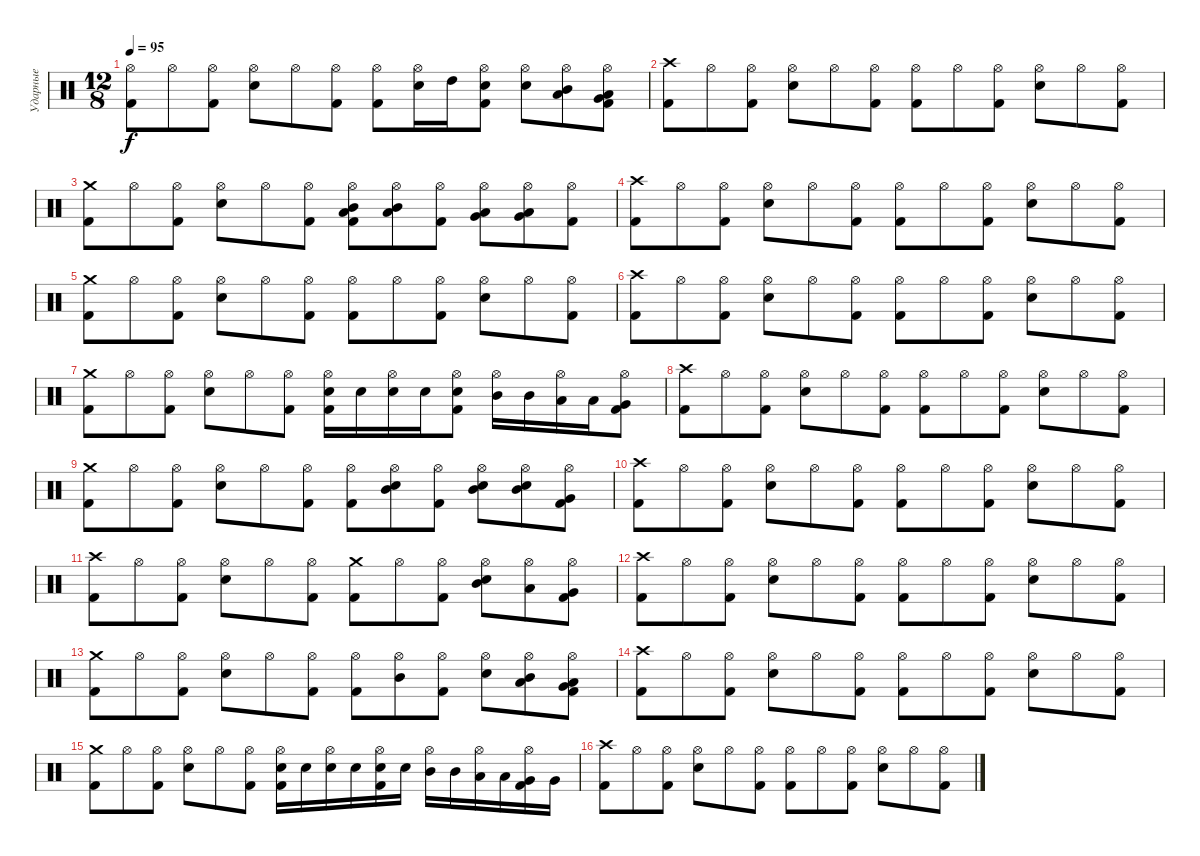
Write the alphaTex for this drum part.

\track ("Ударные" "Ударные") {instrument percussion}
\staff {score}
\articulation defaults
\ts (12 8)
\tempo 95
\clef neutral
\ks c
("Hi-Hat (open)" "Kick (hit) 2").8{dy f} "Hi-Hat (open)".8 ("Hi-Hat (open)" "Kick (hit) 2").8 ("Hi-Hat (open)" "Electric Snare (hit)").8 "Hi-Hat (open)".8 ("Hi-Hat (open)" "Kick (hit) 2").8 ("Hi-Hat (open)" "Kick (hit) 2").8 ("Hi-Hat (open)" "Electric Snare (hit)").16 "High Tom (hit)".16 ("Hi-Hat (open)" "Electric Snare (hit)" "Kick (hit) 2").8 ("Hi-Hat (open)" "Electric Snare (hit)").8 ("Hi-Hat (open)" "Mid Tom (hit)" "Low Tom (hit)").8 ("Hi-Hat (open)" "Low Tom (hit)" "Very Low Tom (hit)" "Kick (hit) 2").8 |
("Crash high (hit)" "Kick (hit) 2").8 "Hi-Hat (open)".8 ("Hi-Hat (open)" "Kick (hit) 2").8 ("Hi-Hat (open)" "Electric Snare (hit)").8 "Hi-Hat (open)".8 ("Hi-Hat (open)" "Kick (hit) 2").8 ("Hi-Hat (open)" "Kick (hit) 2").8 "Hi-Hat (open)".8 ("Hi-Hat (open)" "Kick (hit) 2").8 ("Hi-Hat (open)" "Electric Snare (hit)").8 "Hi-Hat (open)".8 ("Hi-Hat (open)" "Kick (hit) 2").8 |
("Crash medium (hit)" "Kick (hit) 2").8 "Hi-Hat (open)".8 ("Hi-Hat (open)" "Kick (hit) 2").8 ("Hi-Hat (open)" "Electric Snare (hit)").8 "Hi-Hat (open)".8 ("Hi-Hat (open)" "Kick (hit) 2").8 ("Hi-Hat (open)" "Mid Tom (hit)" "Low Tom (hit)" "Kick (hit) 2").8 ("Hi-Hat (open)" "Mid Tom (hit)" "Low Tom (hit)").8 ("Hi-Hat (open)" "Kick (hit) 2").8 ("Hi-Hat (open)" "Low Tom (hit)" "Very Low Tom (hit)").8 ("Hi-Hat (open)" "Low Tom (hit)" "Very Low Tom (hit)").8 ("Hi-Hat (open)" "Kick (hit) 2").8 |
("Crash high (hit)" "Kick (hit) 2").8 "Hi-Hat (open)".8 ("Hi-Hat (open)" "Kick (hit) 2").8 ("Hi-Hat (open)" "Electric Snare (hit)").8 "Hi-Hat (open)".8 ("Hi-Hat (open)" "Kick (hit) 2").8 ("Hi-Hat (open)" "Kick (hit) 2").8 "Hi-Hat (open)".8 ("Hi-Hat (open)" "Kick (hit) 2").8 ("Hi-Hat (open)" "Electric Snare (hit)").8 "Hi-Hat (open)".8 ("Hi-Hat (open)" "Kick (hit) 2").8 |
("Crash medium (hit)" "Kick (hit) 2").8 "Hi-Hat (open)".8 ("Hi-Hat (open)" "Kick (hit) 2").8 ("Hi-Hat (open)" "Electric Snare (hit)").8 "Hi-Hat (open)".8 ("Hi-Hat (open)" "Kick (hit) 2").8 ("Hi-Hat (open)" "Kick (hit) 2").8 "Hi-Hat (open)".8 ("Hi-Hat (open)" "Kick (hit) 2").8 ("Hi-Hat (open)" "Electric Snare (hit)").8 "Hi-Hat (open)".8 ("Hi-Hat (open)" "Kick (hit) 2").8 |
("Crash high (hit)" "Kick (hit) 2").8 "Hi-Hat (open)".8 ("Hi-Hat (open)" "Kick (hit) 2").8 ("Hi-Hat (open)" "Electric Snare (hit)").8 "Hi-Hat (open)".8 ("Hi-Hat (open)" "Kick (hit) 2").8 ("Hi-Hat (open)" "Kick (hit) 2").8 "Hi-Hat (open)".8 ("Hi-Hat (open)" "Kick (hit) 2").8 ("Hi-Hat (open)" "Electric Snare (hit)").8 "Hi-Hat (open)".8 ("Hi-Hat (open)" "Kick (hit) 2").8 |
("Crash medium (hit)" "Kick (hit) 2").8 "Hi-Hat (open)".8 ("Hi-Hat (open)" "Kick (hit) 2").8 ("Hi-Hat (open)" "Electric Snare (hit)").8 "Hi-Hat (open)".8 ("Hi-Hat (open)" "Kick (hit) 2").8 ("Hi-Hat (open)" "Electric Snare (hit)" "Kick (hit) 2").16 "Electric Snare (hit)".16 ("Hi-Hat (open)" "Electric Snare (hit)").16 "Electric Snare (hit)".16 ("Hi-Hat (open)" "Electric Snare (hit)" "Kick (hit) 2").8 ("Hi-Hat (open)" "Mid Tom (hit)").16 "Mid Tom (hit)".16 ("Hi-Hat (open)" "Low Tom (hit)").16 "Low Tom (hit)".16 ("Hi-Hat (open)" "Very Low Tom (hit)" "Kick (hit) 2").8 |
("Crash high (hit)" "Kick (hit) 2").8 "Hi-Hat (open)".8 ("Hi-Hat (open)" "Kick (hit) 2").8 ("Hi-Hat (open)" "Electric Snare (hit)").8 "Hi-Hat (open)".8 ("Hi-Hat (open)" "Kick (hit) 2").8 ("Hi-Hat (open)" "Kick (hit) 2").8 "Hi-Hat (open)".8 ("Hi-Hat (open)" "Kick (hit) 2").8 ("Hi-Hat (open)" "Electric Snare (hit)").8 "Hi-Hat (open)".8 ("Hi-Hat (open)" "Kick (hit) 2").8 |
("Crash medium (hit)" "Kick (hit) 2").8 "Hi-Hat (open)".8 ("Hi-Hat (open)" "Kick (hit) 2").8 ("Hi-Hat (open)" "Electric Snare (hit)").8 "Hi-Hat (open)".8 ("Hi-Hat (open)" "Kick (hit) 2").8 ("Hi-Hat (open)" "Kick (hit) 2").8 ("Hi-Hat (open)" "Mid Tom (hit)" "Electric Snare (hit)").8 ("Hi-Hat (open)" "Kick (hit) 2").8 ("Hi-Hat (open)" "Mid Tom (hit)" "Electric Snare (hit)").8 ("Hi-Hat (open)" "Mid Tom (hit)" "Electric Snare (hit)").8 ("Hi-Hat (open)" "Very Low Tom (hit)" "Kick (hit) 2").8 |
("Crash high (hit)" "Kick (hit) 2").8 "Hi-Hat (open)".8 ("Hi-Hat (open)" "Kick (hit) 2").8 ("Hi-Hat (open)" "Electric Snare (hit)").8 "Hi-Hat (open)".8 ("Hi-Hat (open)" "Kick (hit) 2").8 ("Hi-Hat (open)" "Kick (hit) 2").8 "Hi-Hat (open)".8 ("Hi-Hat (open)" "Kick (hit) 2").8 ("Hi-Hat (open)" "Electric Snare (hit)").8 "Hi-Hat (open)".8 ("Hi-Hat (open)" "Kick (hit) 2").8 |
("Crash high (hit)" "Kick (hit) 2").8 "Hi-Hat (open)".8 ("Hi-Hat (open)" "Kick (hit) 2").8 ("Hi-Hat (open)" "Electric Snare (hit)").8 "Hi-Hat (open)".8 ("Hi-Hat (open)" "Kick (hit) 2").8 ("Crash medium (hit)" "Kick (hit) 2").8 "Hi-Hat (open)".8 ("Hi-Hat (open)" "Kick (hit) 2").8 ("Hi-Hat (open)" "Mid Tom (hit)" "Electric Snare (hit)").8 ("Hi-Hat (open)" "Low Tom (hit)").8 ("Hi-Hat (open)" "Very Low Tom (hit)" "Kick (hit) 2").8 |
("Crash high (hit)" "Kick (hit) 2").8 "Hi-Hat (open)".8 ("Hi-Hat (open)" "Kick (hit) 2").8 ("Hi-Hat (open)" "Electric Snare (hit)").8 "Hi-Hat (open)".8 ("Hi-Hat (open)" "Kick (hit) 2").8 ("Hi-Hat (open)" "Kick (hit) 2").8 "Hi-Hat (open)".8 ("Hi-Hat (open)" "Kick (hit) 2").8 ("Hi-Hat (open)" "Electric Snare (hit)").8 "Hi-Hat (open)".8 ("Hi-Hat (open)" "Kick (hit) 2").8 |
("Crash medium (hit)" "Kick (hit) 2").8 "Hi-Hat (open)".8 ("Hi-Hat (open)" "Kick (hit) 2").8 ("Hi-Hat (open)" "Electric Snare (hit)").8 "Hi-Hat (open)".8 ("Hi-Hat (open)" "Kick (hit) 2").8 ("Hi-Hat (open)" "Kick (hit) 2").8 ("Hi-Hat (open)" "Mid Tom (hit)").8 ("Hi-Hat (open)" "Kick (hit) 2").8 ("Hi-Hat (open)" "Electric Snare (hit)").8 ("Hi-Hat (open)" "Mid Tom (hit)" "Low Tom (hit)").8 ("Hi-Hat (open)" "Low Tom (hit)" "Very Low Tom (hit)" "Kick (hit) 2").8 |
("Crash high (hit)" "Kick (hit) 2").8 "Hi-Hat (open)".8 ("Hi-Hat (open)" "Kick (hit) 2").8 ("Hi-Hat (open)" "Electric Snare (hit)").8 "Hi-Hat (open)".8 ("Hi-Hat (open)" "Kick (hit) 2").8 ("Hi-Hat (open)" "Kick (hit) 2").8 "Hi-Hat (open)".8 ("Hi-Hat (open)" "Kick (hit) 2").8 ("Hi-Hat (open)" "Electric Snare (hit)").8 "Hi-Hat (open)".8 ("Hi-Hat (open)" "Kick (hit) 2").8 |
("Crash medium (hit)" "Kick (hit) 2").8 "Hi-Hat (open)".8 ("Hi-Hat (open)" "Kick (hit) 2").8 ("Hi-Hat (open)" "Electric Snare (hit)").8 "Hi-Hat (open)".8 ("Hi-Hat (open)" "Kick (hit) 2").8 ("Hi-Hat (open)" "Electric Snare (hit)" "Kick (hit) 2").16 "Electric Snare (hit)".16 ("Hi-Hat (open)" "Electric Snare (hit)").16 "Electric Snare (hit)".16 ("Hi-Hat (open)" "Electric Snare (hit)" "Kick (hit) 2").16 "Electric Snare (hit)".16 ("Hi-Hat (open)" "Mid Tom (hit)").16 "Mid Tom (hit)".16 ("Hi-Hat (open)" "Low Tom (hit)").16 "Low Tom (hit)".16 ("Hi-Hat (open)" "Very Low Tom (hit)" "Kick (hit) 2").16 "Very Low Tom (hit)".16 |
("Crash high (hit)" "Kick (hit) 2").8 "Hi-Hat (open)".8 ("Hi-Hat (open)" "Kick (hit) 2").8 ("Hi-Hat (open)" "Electric Snare (hit)").8 "Hi-Hat (open)".8 ("Hi-Hat (open)" "Kick (hit) 2").8 ("Hi-Hat (open)" "Kick (hit) 2").8 "Hi-Hat (open)".8 ("Hi-Hat (open)" "Kick (hit) 2").8 ("Hi-Hat (open)" "Electric Snare (hit)").8 "Hi-Hat (open)".8 ("Hi-Hat (open)" "Kick (hit) 2").8
